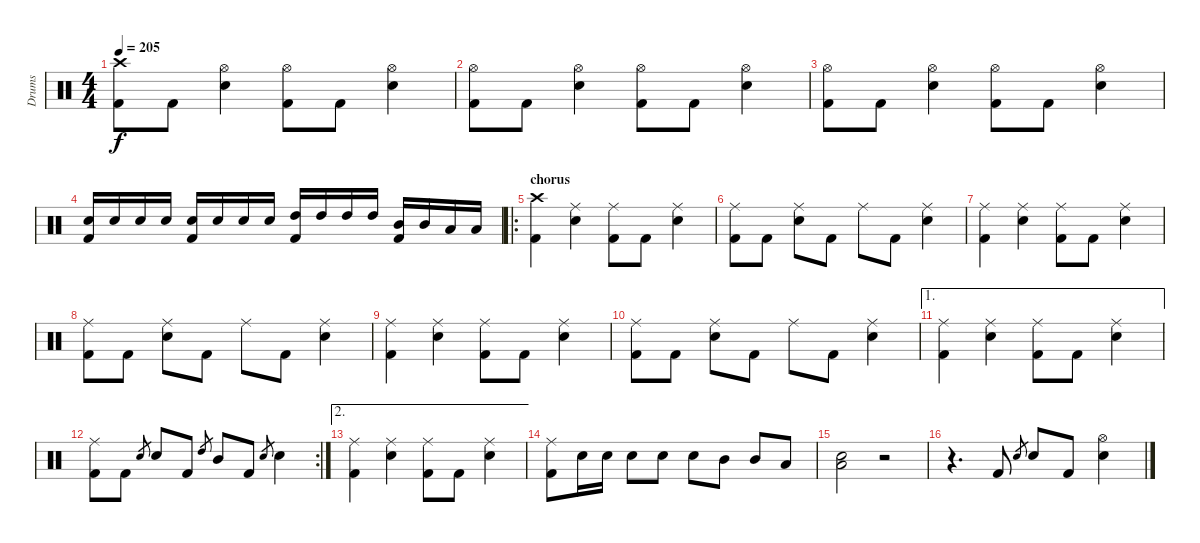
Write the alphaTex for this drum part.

\track ("Drums" "Drums") {instrument percussion}
\staff {score}
\articulation defaults
\ts (4 4)
\tempo 205
\clef neutral
\ks c
("Crash high (hit)" "Kick (hit) 2").8{dy f} "Kick (hit) 2".8 ("Hi-Hat (open)" "Electric Snare (hit)").4 ("Hi-Hat (open)" "Kick (hit) 2").8 "Kick (hit) 2".8 ("Hi-Hat (open)" "Electric Snare (hit)").4 |
("Hi-Hat (open)" "Kick (hit) 2").8 "Kick (hit) 2".8 ("Hi-Hat (open)" "Electric Snare (hit)").4 ("Hi-Hat (open)" "Kick (hit) 2").8 "Kick (hit) 2".8 ("Hi-Hat (open)" "Electric Snare (hit)").4 |
("Hi-Hat (open)" "Kick (hit) 2").8 "Kick (hit) 2".8 ("Hi-Hat (open)" "Electric Snare (hit)").4 ("Hi-Hat (open)" "Kick (hit) 2").8 "Kick (hit) 2".8 ("Hi-Hat (open)" "Electric Snare (hit)").4 |
("Electric Snare (hit)" "Kick (hit) 2").16 "Electric Snare (hit)".16 "Electric Snare (hit)".16 "Electric Snare (hit)".16 ("Electric Snare (hit)" "Kick (hit) 2").16 "Electric Snare (hit)".16 "Electric Snare (hit)".16 "Electric Snare (hit)".16 ("High Tom (hit)" "Kick (hit) 2").16 "High Tom (hit)".16 "High Tom (hit)".16 "High Tom (hit)".16 ("Mid Tom (hit)" "Kick (hit) 2").16 "Mid Tom (hit)".16 "Low Tom (hit)".16 "Low Tom (hit)".16 |
\ro
\section ("" "chorus")
("Crash high (hit)" "Kick (hit) 2").4 ("Ride (middle)" "Electric Snare (hit)").4 ("Ride (middle)" "Kick (hit) 2").8 "Kick (hit) 2".8 ("Ride (middle)" "Electric Snare (hit)").4 |
("Ride (middle)" "Kick (hit) 2").8 "Kick (hit) 2".8 ("Ride (middle)" "Electric Snare (hit)").8 "Kick (hit) 2".8 "Ride (middle)".8 "Kick (hit) 2".8 ("Ride (middle)" "Electric Snare (hit)").4 |
("Ride (middle)" "Kick (hit) 2").4 ("Ride (middle)" "Electric Snare (hit)").4 ("Ride (middle)" "Kick (hit) 2").8 "Kick (hit) 2".8 ("Ride (middle)" "Electric Snare (hit)").4 |
("Ride (middle)" "Kick (hit) 2").8 "Kick (hit) 2".8 ("Ride (middle)" "Electric Snare (hit)").8 "Kick (hit) 2".8 "Ride (middle)".8 "Kick (hit) 2".8 ("Ride (middle)" "Electric Snare (hit)").4 |
("Ride (middle)" "Kick (hit) 2").4 ("Ride (middle)" "Electric Snare (hit)").4 ("Ride (middle)" "Kick (hit) 2").8 "Kick (hit) 2".8 ("Ride (middle)" "Electric Snare (hit)").4 |
("Ride (middle)" "Kick (hit) 2").8 "Kick (hit) 2".8 ("Ride (middle)" "Electric Snare (hit)").8 "Kick (hit) 2".8 "Ride (middle)".8 "Kick (hit) 2".8 ("Ride (middle)" "Electric Snare (hit)").4 |
\ae 1
("Ride (middle)" "Kick (hit) 2").4 ("Ride (middle)" "Electric Snare (hit)").4 ("Ride (middle)" "Kick (hit) 2").8 "Kick (hit) 2".8 ("Ride (middle)" "Electric Snare (hit)").4 |
\rc 2
("Ride (middle)" "Kick (hit) 2").8 "Kick (hit) 2".8 "Electric Snare (hit)".8{gr} "Electric Snare (hit)".8 "Kick (hit) 2".8 "High Tom (hit)".8{gr} "Mid Tom (hit)".8 "Kick (hit) 2".8 "Electric Snare (hit)".8{gr} "Electric Snare (hit)".4 |
\ae 2
("Ride (middle)" "Kick (hit) 2").4 ("Ride (middle)" "Electric Snare (hit)").4 ("Ride (middle)" "Kick (hit) 2").8 "Kick (hit) 2".8 ("Ride (middle)" "Electric Snare (hit)").4 |
("Ride (middle)" "Kick (hit) 2").8 "Electric Snare (hit)".16 "Electric Snare (hit)".16 "Electric Snare (hit)".8 "Electric Snare (hit)".8 "Electric Snare (hit)".8 "Mid Tom (hit)".8 "Mid Tom (hit)".8 "Low Tom (hit)".8 |
("Electric Snare (hit)" "Low Tom (hit)").2 r.2 |
r.4{d} "Kick (hit) 2".8 "Electric Snare (hit)".8{gr} "Electric Snare (hit)".8 "Kick (hit) 2".8 ("Hi-Hat (open)" "Electric Snare (hit)").4
